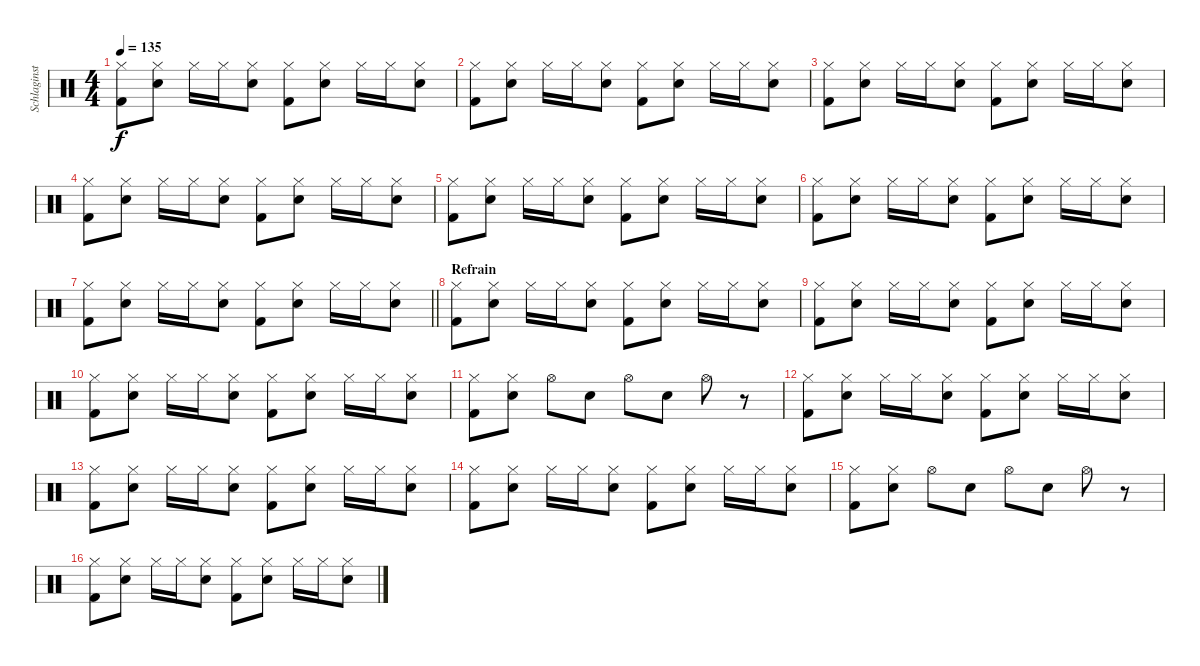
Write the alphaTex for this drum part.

\track ("Schlaginstrumente - Auswahl" "Schlaginst") {instrument percussion}
\staff {score}
\articulation defaults
\ts (4 4)
\tempo 135
\clef neutral
\ks c
("Hi-Hat (closed)" "Kick (hit) 2").8{dy f} ("Hi-Hat (closed)" "Snare (hit) 2").8 "Hi-Hat (closed)".16 "Hi-Hat (closed)".16 ("Hi-Hat (closed)" "Snare (hit) 2").8 ("Hi-Hat (closed)" "Kick (hit) 2").8 ("Hi-Hat (closed)" "Snare (hit) 2").8 "Hi-Hat (closed)".16 "Hi-Hat (closed)".16 ("Hi-Hat (closed)" "Snare (hit) 2").8 |
("Hi-Hat (closed)" "Kick (hit) 2").8 ("Hi-Hat (closed)" "Snare (hit) 2").8 "Hi-Hat (closed)".16 "Hi-Hat (closed)".16 ("Hi-Hat (closed)" "Snare (hit) 2").8 ("Hi-Hat (closed)" "Kick (hit) 2").8 ("Hi-Hat (closed)" "Snare (hit) 2").8 "Hi-Hat (closed)".16 "Hi-Hat (closed)".16 ("Hi-Hat (closed)" "Snare (hit) 2").8 |
("Hi-Hat (closed)" "Kick (hit) 2").8 ("Hi-Hat (closed)" "Snare (hit) 2").8 "Hi-Hat (closed)".16 "Hi-Hat (closed)".16 ("Hi-Hat (closed)" "Snare (hit) 2").8 ("Hi-Hat (closed)" "Kick (hit) 2").8 ("Hi-Hat (closed)" "Snare (hit) 2").8 "Hi-Hat (closed)".16 "Hi-Hat (closed)".16 ("Hi-Hat (closed)" "Snare (hit) 2").8 |
("Hi-Hat (closed)" "Kick (hit) 2").8 ("Hi-Hat (closed)" "Snare (hit) 2").8 "Hi-Hat (closed)".16 "Hi-Hat (closed)".16 ("Hi-Hat (closed)" "Snare (hit) 2").8 ("Hi-Hat (closed)" "Kick (hit) 2").8 ("Hi-Hat (closed)" "Snare (hit) 2").8 "Hi-Hat (closed)".16 "Hi-Hat (closed)".16 ("Hi-Hat (closed)" "Snare (hit) 2").8 |
("Hi-Hat (closed)" "Kick (hit) 2").8 ("Hi-Hat (closed)" "Snare (hit) 2").8 "Hi-Hat (closed)".16 "Hi-Hat (closed)".16 ("Hi-Hat (closed)" "Snare (hit) 2").8 ("Hi-Hat (closed)" "Kick (hit) 2").8 ("Hi-Hat (closed)" "Snare (hit) 2").8 "Hi-Hat (closed)".16 "Hi-Hat (closed)".16 ("Hi-Hat (closed)" "Snare (hit) 2").8 |
("Hi-Hat (closed)" "Kick (hit) 2").8 ("Hi-Hat (closed)" "Snare (hit) 2").8 "Hi-Hat (closed)".16 "Hi-Hat (closed)".16 ("Hi-Hat (closed)" "Snare (hit) 2").8 ("Hi-Hat (closed)" "Kick (hit) 2").8 ("Hi-Hat (closed)" "Snare (hit) 2").8 "Hi-Hat (closed)".16 "Hi-Hat (closed)".16 ("Hi-Hat (closed)" "Snare (hit) 2").8 |
\barLineRight lightlight
("Hi-Hat (closed)" "Kick (hit) 2").8 ("Hi-Hat (closed)" "Snare (hit) 2").8 "Hi-Hat (closed)".16 "Hi-Hat (closed)".16 ("Hi-Hat (closed)" "Snare (hit) 2").8 ("Hi-Hat (closed)" "Kick (hit) 2").8 ("Hi-Hat (closed)" "Snare (hit) 2").8 "Hi-Hat (closed)".16 "Hi-Hat (closed)".16 ("Hi-Hat (closed)" "Snare (hit) 2").8 |
\section ("" "Refrain")
("Hi-Hat (closed)" "Kick (hit) 2").8 ("Hi-Hat (closed)" "Snare (hit) 2").8 "Hi-Hat (closed)".16 "Hi-Hat (closed)".16 ("Hi-Hat (closed)" "Snare (hit) 2").8 ("Hi-Hat (closed)" "Kick (hit) 2").8 ("Hi-Hat (closed)" "Snare (hit) 2").8 "Hi-Hat (closed)".16 "Hi-Hat (closed)".16 ("Hi-Hat (closed)" "Snare (hit) 2").8 |
("Hi-Hat (closed)" "Kick (hit) 2").8 ("Hi-Hat (closed)" "Snare (hit) 2").8 "Hi-Hat (closed)".16 "Hi-Hat (closed)".16 ("Hi-Hat (closed)" "Snare (hit) 2").8 ("Hi-Hat (closed)" "Kick (hit) 2").8 ("Hi-Hat (closed)" "Snare (hit) 2").8 "Hi-Hat (closed)".16 "Hi-Hat (closed)".16 ("Hi-Hat (closed)" "Snare (hit) 2").8 |
("Hi-Hat (closed)" "Kick (hit) 2").8 ("Hi-Hat (closed)" "Snare (hit) 2").8 "Hi-Hat (closed)".16 "Hi-Hat (closed)".16 ("Hi-Hat (closed)" "Snare (hit) 2").8 ("Hi-Hat (closed)" "Kick (hit) 2").8 ("Hi-Hat (closed)" "Snare (hit) 2").8 "Hi-Hat (closed)".16 "Hi-Hat (closed)".16 ("Hi-Hat (closed)" "Snare (hit) 2").8 |
("Hi-Hat (closed)" "Kick (hit) 2").8 ("Hi-Hat (closed)" "Snare (hit) 2").8 "Hi-Hat (open)".8 "Snare (hit) 2".8 "Hi-Hat (open)".8 "Snare (hit) 2".8 "Hi-Hat (open)".8 r.8 |
("Hi-Hat (closed)" "Kick (hit) 2").8 ("Hi-Hat (closed)" "Snare (hit) 2").8 "Hi-Hat (closed)".16 "Hi-Hat (closed)".16 ("Hi-Hat (closed)" "Snare (hit) 2").8 ("Hi-Hat (closed)" "Kick (hit) 2").8 ("Hi-Hat (closed)" "Snare (hit) 2").8 "Hi-Hat (closed)".16 "Hi-Hat (closed)".16 ("Hi-Hat (closed)" "Snare (hit) 2").8 |
("Hi-Hat (closed)" "Kick (hit) 2").8 ("Hi-Hat (closed)" "Snare (hit) 2").8 "Hi-Hat (closed)".16 "Hi-Hat (closed)".16 ("Hi-Hat (closed)" "Snare (hit) 2").8 ("Hi-Hat (closed)" "Kick (hit) 2").8 ("Hi-Hat (closed)" "Snare (hit) 2").8 "Hi-Hat (closed)".16 "Hi-Hat (closed)".16 ("Hi-Hat (closed)" "Snare (hit) 2").8 |
("Hi-Hat (closed)" "Kick (hit) 2").8 ("Hi-Hat (closed)" "Snare (hit) 2").8 "Hi-Hat (closed)".16 "Hi-Hat (closed)".16 ("Hi-Hat (closed)" "Snare (hit) 2").8 ("Hi-Hat (closed)" "Kick (hit) 2").8 ("Hi-Hat (closed)" "Snare (hit) 2").8 "Hi-Hat (closed)".16 "Hi-Hat (closed)".16 ("Hi-Hat (closed)" "Snare (hit) 2").8 |
("Hi-Hat (closed)" "Kick (hit) 2").8 ("Hi-Hat (closed)" "Snare (hit) 2").8 "Hi-Hat (open)".8 "Snare (hit) 2".8 "Hi-Hat (open)".8 "Snare (hit) 2".8 "Hi-Hat (open)".8 r.8 |
("Hi-Hat (closed)" "Kick (hit) 2").8 ("Hi-Hat (closed)" "Snare (hit) 2").8 "Hi-Hat (closed)".16 "Hi-Hat (closed)".16 ("Hi-Hat (closed)" "Snare (hit) 2").8 ("Hi-Hat (closed)" "Kick (hit) 2").8 ("Hi-Hat (closed)" "Snare (hit) 2").8 "Hi-Hat (closed)".16 "Hi-Hat (closed)".16 ("Hi-Hat (closed)" "Snare (hit) 2").8
